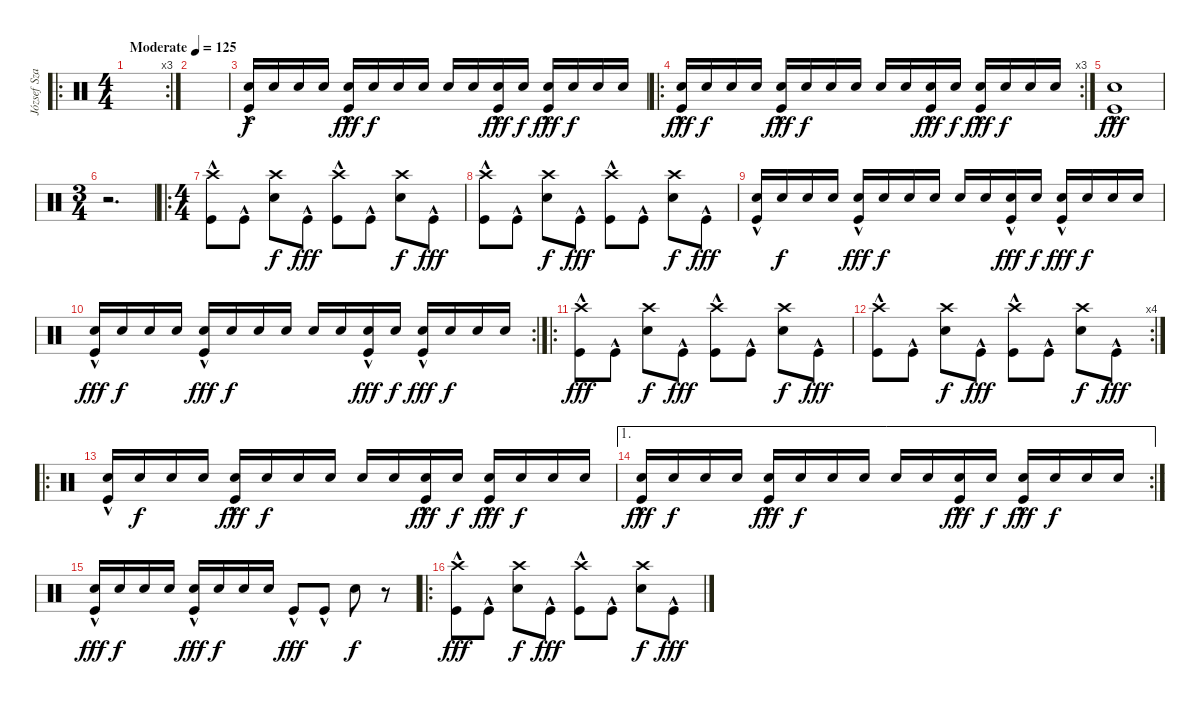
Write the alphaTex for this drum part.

\track ("József Szakács" "József Sza") {instrument percussion bank 127}
\staff {score}
\articulation defaults
\ro
\rc 3
\ts (4 4)
\tempo (125 "Moderate")
\clef neutral
\ks c
|
|
("Electric Snare (hit)" "Kick (hit)"{hac}).16 "Electric Snare (hit)".16{dy f} "Electric Snare (hit)".16 "Electric Snare (hit)".16 ("Electric Snare (hit)" "Kick (hit)"{hac}).16{dy fff} "Electric Snare (hit)".16{dy f} "Electric Snare (hit)".16 "Electric Snare (hit)".16 "Electric Snare (hit)".16 "Electric Snare (hit)".16 ("Electric Snare (hit)" "Kick (hit)"{hac}).16{dy fff} "Electric Snare (hit)".16{dy f} ("Electric Snare (hit)" "Kick (hit)"{hac}).16{dy fff} "Electric Snare (hit)".16{dy f} "Electric Snare (hit)".16 "Electric Snare (hit)".16 |
\ro
\rc 3
("Electric Snare (hit)" "Kick (hit)"{hac}).16{dy fff} "Electric Snare (hit)".16{dy f} "Electric Snare (hit)".16 "Electric Snare (hit)".16 ("Electric Snare (hit)" "Kick (hit)"{hac}).16{dy fff} "Electric Snare (hit)".16{dy f} "Electric Snare (hit)".16 "Electric Snare (hit)".16 "Electric Snare (hit)".16 "Electric Snare (hit)".16 ("Electric Snare (hit)" "Kick (hit)"{hac}).16{dy fff} "Electric Snare (hit)".16{dy f} ("Electric Snare (hit)" "Kick (hit)"{hac}).16{dy fff} "Electric Snare (hit)".16{dy f} "Electric Snare (hit)".16 "Electric Snare (hit)".16 |
("Electric Snare (hit)" "Kick (hit)"{hac}).1{dy fff} |
\ts (3 4)
r.2{d} |
\ro
\ts (4 4)
("Crash high (hit)" "Kick (hit)"{hac}).8 "Kick (hit)"{hac}.8 ("Crash high (hit)" "Electric Snare (hit)").8{dy f} "Kick (hit)"{hac}.8{dy fff} ("Crash high (hit)" "Kick (hit)"{hac}).8 "Kick (hit)"{hac}.8 ("Crash high (hit)" "Electric Snare (hit)").8{dy f} "Kick (hit)"{hac}.8{dy fff} |
("Crash high (hit)" "Kick (hit)"{hac}).8 "Kick (hit)"{hac}.8 ("Crash high (hit)" "Electric Snare (hit)").8{dy f} "Kick (hit)"{hac}.8{dy fff} ("Crash high (hit)" "Kick (hit)"{hac}).8 "Kick (hit)"{hac}.8 ("Crash high (hit)" "Electric Snare (hit)").8{dy f} "Kick (hit)"{hac}.8{dy fff} |
("Electric Snare (hit)" "Kick (hit)"{hac}).16 "Electric Snare (hit)".16{dy f} "Electric Snare (hit)".16 "Electric Snare (hit)".16 ("Electric Snare (hit)" "Kick (hit)"{hac}).16{dy fff} "Electric Snare (hit)".16{dy f} "Electric Snare (hit)".16 "Electric Snare (hit)".16 "Electric Snare (hit)".16 "Electric Snare (hit)".16 ("Electric Snare (hit)" "Kick (hit)"{hac}).16{dy fff} "Electric Snare (hit)".16{dy f} ("Electric Snare (hit)" "Kick (hit)"{hac}).16{dy fff} "Electric Snare (hit)".16{dy f} "Electric Snare (hit)".16 "Electric Snare (hit)".16 |
\rc 2
("Electric Snare (hit)" "Kick (hit)"{hac}).16{dy fff} "Electric Snare (hit)".16{dy f} "Electric Snare (hit)".16 "Electric Snare (hit)".16 ("Electric Snare (hit)" "Kick (hit)"{hac}).16{dy fff} "Electric Snare (hit)".16{dy f} "Electric Snare (hit)".16 "Electric Snare (hit)".16 "Electric Snare (hit)".16 "Electric Snare (hit)".16 ("Electric Snare (hit)" "Kick (hit)"{hac}).16{dy fff} "Electric Snare (hit)".16{dy f} ("Electric Snare (hit)" "Kick (hit)"{hac}).16{dy fff} "Electric Snare (hit)".16{dy f} "Electric Snare (hit)".16 "Electric Snare (hit)".16 |
\ro
("Crash high (hit)" "Kick (hit)"{hac}).8{dy fff} "Kick (hit)"{hac}.8 ("Crash high (hit)" "Electric Snare (hit)").8{dy f} "Kick (hit)"{hac}.8{dy fff} ("Crash high (hit)" "Kick (hit)"{hac}).8 "Kick (hit)"{hac}.8 ("Crash high (hit)" "Electric Snare (hit)").8{dy f} "Kick (hit)"{hac}.8{dy fff} |
\rc 4
("Crash high (hit)" "Kick (hit)"{hac}).8 "Kick (hit)"{hac}.8 ("Crash high (hit)" "Electric Snare (hit)").8{dy f} "Kick (hit)"{hac}.8{dy fff} ("Crash high (hit)" "Kick (hit)"{hac}).8 "Kick (hit)"{hac}.8 ("Crash high (hit)" "Electric Snare (hit)").8{dy f} "Kick (hit)"{hac}.8{dy fff} |
\ro
("Electric Snare (hit)" "Kick (hit)"{hac}).16 "Electric Snare (hit)".16{dy f} "Electric Snare (hit)".16 "Electric Snare (hit)".16 ("Electric Snare (hit)" "Kick (hit)"{hac}).16{dy fff} "Electric Snare (hit)".16{dy f} "Electric Snare (hit)".16 "Electric Snare (hit)".16 "Electric Snare (hit)".16 "Electric Snare (hit)".16 ("Electric Snare (hit)" "Kick (hit)"{hac}).16{dy fff} "Electric Snare (hit)".16{dy f} ("Electric Snare (hit)" "Kick (hit)"{hac}).16{dy fff} "Electric Snare (hit)".16{dy f} "Electric Snare (hit)".16 "Electric Snare (hit)".16 |
\ae 1
\rc 2
("Electric Snare (hit)" "Kick (hit)"{hac}).16{dy fff} "Electric Snare (hit)".16{dy f} "Electric Snare (hit)".16 "Electric Snare (hit)".16 ("Electric Snare (hit)" "Kick (hit)"{hac}).16{dy fff} "Electric Snare (hit)".16{dy f} "Electric Snare (hit)".16 "Electric Snare (hit)".16 "Electric Snare (hit)".16 "Electric Snare (hit)".16 ("Electric Snare (hit)" "Kick (hit)"{hac}).16{dy fff} "Electric Snare (hit)".16{dy f} ("Electric Snare (hit)" "Kick (hit)"{hac}).16{dy fff} "Electric Snare (hit)".16{dy f} "Electric Snare (hit)".16 "Electric Snare (hit)".16 |
("Electric Snare (hit)" "Kick (hit)"{hac}).16{dy fff} "Electric Snare (hit)".16{dy f} "Electric Snare (hit)".16 "Electric Snare (hit)".16 ("Electric Snare (hit)" "Kick (hit)"{hac}).16{dy fff} "Electric Snare (hit)".16{dy f} "Electric Snare (hit)".16 "Electric Snare (hit)".16 "Kick (hit)"{hac}.8{dy fff} "Kick (hit)"{hac}.8 "Electric Snare (hit)".8{dy f} r.8 |
\ro
("Crash high (hit)" "Kick (hit)"{hac}).8{dy fff} "Kick (hit)"{hac}.8 ("Crash high (hit)" "Electric Snare (hit)").8{dy f} "Kick (hit)"{hac}.8{dy fff} ("Crash high (hit)" "Kick (hit)"{hac}).8 "Kick (hit)"{hac}.8 ("Crash high (hit)" "Electric Snare (hit)").8{dy f} "Kick (hit)"{hac}.8{dy fff}
